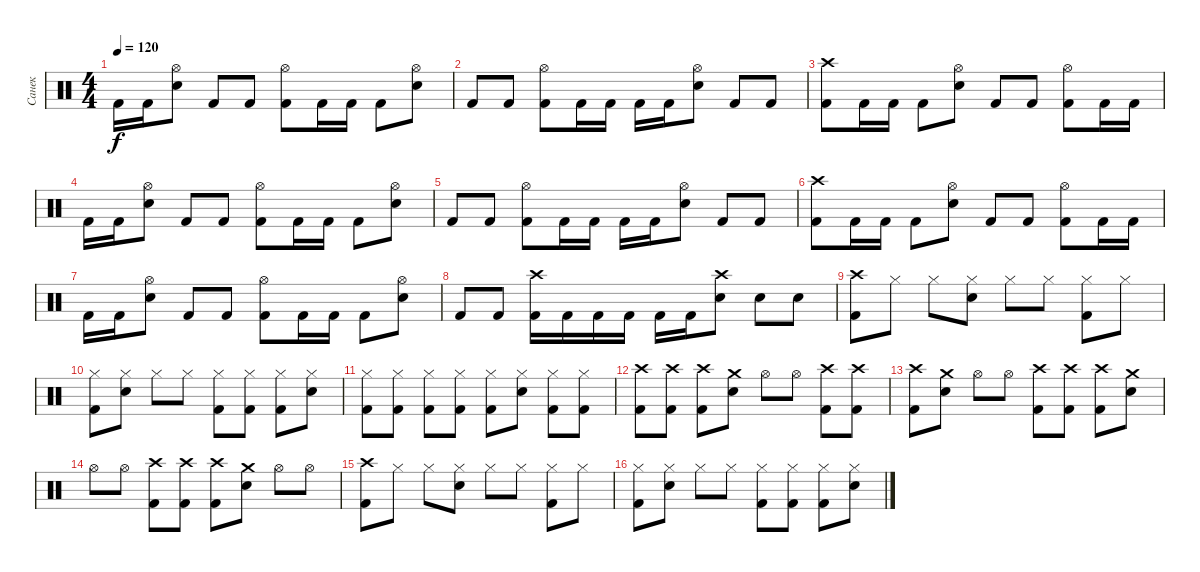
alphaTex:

\track ("Санек" "Санек") {instrument percussion}
\staff {score}
\articulation defaults
\ts (4 4)
\tempo 120
\clef neutral
\ks c "Kick (hit) 2".16{dy f} "Kick (hit) 2".16
("Hi-Hat (open)" "Electric Snare (hit)").8 "Kick (hit) 2".8 "Kick (hit) 2".8 ("Hi-Hat (open)" "Kick (hit) 2").8 "Kick (hit) 2".16 "Kick (hit) 2".16 "Kick (hit) 2".8 ("Hi-Hat (open)" "Electric Snare (hit)").8 |
"Kick (hit) 2".8 "Kick (hit) 2".8 ("Hi-Hat (open)" "Kick (hit) 2").8 "Kick (hit) 2".16 "Kick (hit) 2".16 "Kick (hit) 2".16 "Kick (hit) 2".16 ("Hi-Hat (open)" "Electric Snare (hit)").8 "Kick (hit) 2".8 "Kick (hit) 2".8 |
("Crash high (hit)" "Kick (hit) 2").8 "Kick (hit) 2".16 "Kick (hit) 2".16 "Kick (hit) 2".8 ("Hi-Hat (open)" "Electric Snare (hit)").8 "Kick (hit) 2".8 "Kick (hit) 2".8 ("Hi-Hat (open)" "Kick (hit) 2").8 "Kick (hit) 2".16 "Kick (hit) 2".16 |
"Kick (hit) 2".16 "Kick (hit) 2".16 ("Hi-Hat (open)" "Electric Snare (hit)").8 "Kick (hit) 2".8 "Kick (hit) 2".8 ("Hi-Hat (open)" "Kick (hit) 2").8 "Kick (hit) 2".16 "Kick (hit) 2".16 "Kick (hit) 2".8 ("Hi-Hat (open)" "Electric Snare (hit)").8 |
"Kick (hit) 2".8 "Kick (hit) 2".8 ("Hi-Hat (open)" "Kick (hit) 2").8 "Kick (hit) 2".16 "Kick (hit) 2".16 "Kick (hit) 2".16 "Kick (hit) 2".16 ("Hi-Hat (open)" "Electric Snare (hit)").8 "Kick (hit) 2".8 "Kick (hit) 2".8 |
("Crash high (hit)" "Kick (hit) 2").8 "Kick (hit) 2".16 "Kick (hit) 2".16 "Kick (hit) 2".8 ("Hi-Hat (open)" "Electric Snare (hit)").8 "Kick (hit) 2".8 "Kick (hit) 2".8 ("Hi-Hat (open)" "Kick (hit) 2").8 "Kick (hit) 2".16 "Kick (hit) 2".16 |
"Kick (hit) 2".16 "Kick (hit) 2".16 ("Hi-Hat (open)" "Electric Snare (hit)").8 "Kick (hit) 2".8 "Kick (hit) 2".8 ("Hi-Hat (open)" "Kick (hit) 2").8 "Kick (hit) 2".16 "Kick (hit) 2".16 "Kick (hit) 2".8 ("Hi-Hat (open)" "Electric Snare (hit)").8 |
"Kick (hit) 2".8 "Kick (hit) 2".8 ("Crash high (hit)" "Kick (hit) 2").16 "Kick (hit) 2".16 "Kick (hit) 2".16 "Kick (hit) 2".16 "Kick (hit) 2".16 "Kick (hit) 2".16 ("Crash high (hit)" "Electric Snare (hit)").8 "Electric Snare (hit)".8 "Electric Snare (hit)".8 |
("Crash high (hit)" "Kick (hit) 2").8 "Hi-Hat (closed)".8 "Hi-Hat (closed)".8 ("Hi-Hat (closed)" "Electric Snare (hit)").8 "Hi-Hat (closed)".8 "Hi-Hat (closed)".8 ("Hi-Hat (closed)" "Kick (hit) 2").8 "Hi-Hat (closed)".8 |
("Hi-Hat (closed)" "Kick (hit) 2").8 ("Hi-Hat (closed)" "Electric Snare (hit)").8 "Hi-Hat (closed)".8 "Hi-Hat (closed)".8 ("Hi-Hat (closed)" "Kick (hit) 2").8 ("Hi-Hat (closed)" "Kick (hit) 2").8 ("Hi-Hat (closed)" "Kick (hit) 2").8 ("Hi-Hat (closed)" "Electric Snare (hit)").8 |
("Hi-Hat (closed)" "Kick (hit) 2").8 ("Hi-Hat (closed)" "Kick (hit) 2").8 ("Hi-Hat (closed)" "Kick (hit) 2").8 ("Hi-Hat (closed)" "Kick (hit) 2").8 ("Hi-Hat (closed)" "Kick (hit) 2").8 ("Hi-Hat (closed)" "Electric Snare (hit)").8 ("Hi-Hat (closed)" "Kick (hit) 2").8 ("Hi-Hat (closed)" "Kick (hit) 2").8 |
("Crash high (hit)" "Kick (hit) 2").8 ("Crash high (hit)" "Kick (hit) 2").8 ("Crash high (hit)" "Kick (hit) 2").8 ("Crash medium (hit)" "Electric Snare (hit)").8 "Hi-Hat (open)".8 "Hi-Hat (open)".8 ("Crash high (hit)" "Kick (hit) 2").8 ("Crash high (hit)" "Kick (hit) 2").8 |
("Crash high (hit)" "Kick (hit) 2").8 ("Crash medium (hit)" "Electric Snare (hit)").8 "Hi-Hat (open)".8 "Hi-Hat (open)".8 ("Crash high (hit)" "Kick (hit) 2").8 ("Crash high (hit)" "Kick (hit) 2").8 ("Crash high (hit)" "Kick (hit) 2").8 ("Crash medium (hit)" "Electric Snare (hit)").8 |
"Hi-Hat (open)".8 "Hi-Hat (open)".8 ("Crash high (hit)" "Kick (hit) 2").8 ("Crash high (hit)" "Kick (hit) 2").8 ("Crash high (hit)" "Kick (hit) 2").8 ("Crash medium (hit)" "Electric Snare (hit)").8 "Hi-Hat (open)".8 "Hi-Hat (open)".8 |
("Crash high (hit)" "Kick (hit) 2").8 "Hi-Hat (closed)".8 "Hi-Hat (closed)".8 ("Hi-Hat (closed)" "Electric Snare (hit)").8 "Hi-Hat (closed)".8 "Hi-Hat (closed)".8 ("Hi-Hat (closed)" "Kick (hit) 2").8 "Hi-Hat (closed)".8 |
("Hi-Hat (closed)" "Kick (hit) 2").8 ("Hi-Hat (closed)" "Electric Snare (hit)").8 "Hi-Hat (closed)".8 "Hi-Hat (closed)".8 ("Hi-Hat (closed)" "Kick (hit) 2").8 ("Hi-Hat (closed)" "Kick (hit) 2").8 ("Hi-Hat (closed)" "Kick (hit) 2").8 ("Hi-Hat (closed)" "Electric Snare (hit)").8
